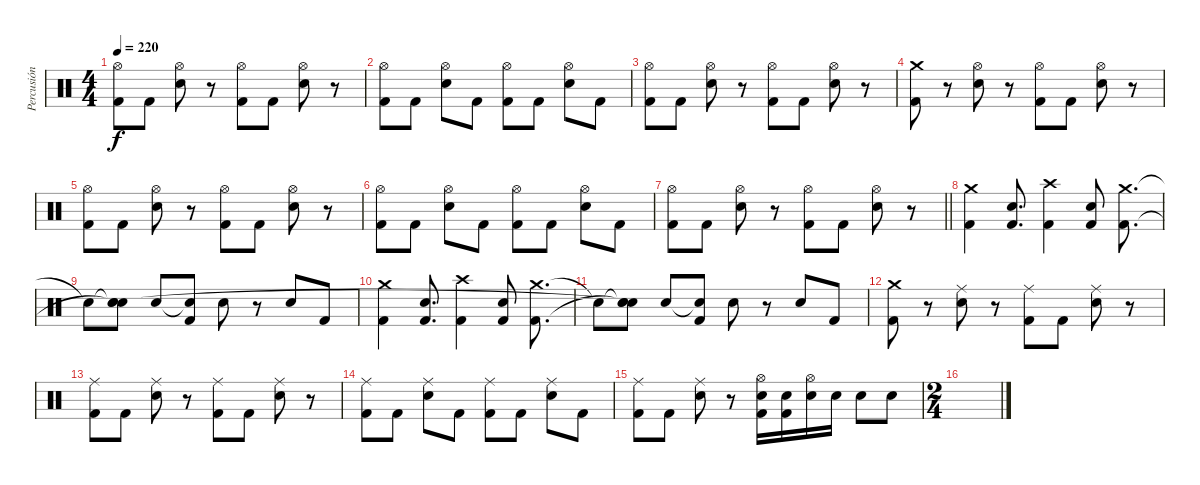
\track ("Percusión" "Percusión") {instrument percussion}
\staff {score}
\articulation defaults
\ts (4 4)
\tempo 220
\clef neutral
\ks c
("Hi-Hat (open)" "Kick (hit) 2").8{dy f} "Kick (hit) 2".8 ("Hi-Hat (open)" "Electric Snare (hit)").8 r.8 ("Hi-Hat (open)" "Kick (hit) 2").8 "Kick (hit) 2".8 ("Hi-Hat (open)" "Electric Snare (hit)").8 r.8 |
("Hi-Hat (open)" "Kick (hit) 2").8 "Kick (hit) 2".8 ("Hi-Hat (open)" "Electric Snare (hit)").8 "Kick (hit) 2".8 ("Hi-Hat (open)" "Kick (hit) 2").8 "Kick (hit) 2".8 ("Hi-Hat (open)" "Electric Snare (hit)").8 "Kick (hit) 2".8 |
("Hi-Hat (open)" "Kick (hit) 2").8 "Kick (hit) 2".8 ("Hi-Hat (open)" "Electric Snare (hit)").8 r.8 ("Hi-Hat (open)" "Kick (hit) 2").8 "Kick (hit) 2".8 ("Hi-Hat (open)" "Electric Snare (hit)").8 r.8 |
("Crash medium (hit)" "Kick (hit) 2").8 r.8 ("Hi-Hat (open)" "Electric Snare (hit)").8 r.8 ("Hi-Hat (open)" "Kick (hit) 2").8 "Kick (hit) 2".8 ("Hi-Hat (open)" "Electric Snare (hit)").8 r.8 |
("Hi-Hat (open)" "Kick (hit) 2").8 "Kick (hit) 2".8 ("Hi-Hat (open)" "Electric Snare (hit)").8 r.8 ("Hi-Hat (open)" "Kick (hit) 2").8 "Kick (hit) 2".8 ("Hi-Hat (open)" "Electric Snare (hit)").8 r.8 |
("Hi-Hat (open)" "Kick (hit) 2").8 "Kick (hit) 2".8 ("Hi-Hat (open)" "Electric Snare (hit)").8 "Kick (hit) 2".8 ("Hi-Hat (open)" "Kick (hit) 2").8 "Kick (hit) 2".8 ("Hi-Hat (open)" "Electric Snare (hit)").8 "Kick (hit) 2".8 |
\barLineRight lightlight
("Hi-Hat (open)" "Kick (hit) 2").8 "Kick (hit) 2".8 ("Hi-Hat (open)" "Electric Snare (hit)").8 r.8 ("Hi-Hat (open)" "Kick (hit) 2").8 "Kick (hit) 2".8 ("Hi-Hat (open)" "Electric Snare (hit)").8 r.8 |
("Crash medium (hit)" "Kick (hit) 2").4 ("Electric Snare (hit)" "Kick (hit) 2").8{d} ("Crash high (hit)" "Kick (hit) 2").4 ("Electric Snare (hit)" "Kick (hit) 2").8 ("Crash medium (hit)" "Kick (hit) 2").8{d} |
"Snare (hit)"{t}.8 ("Snare (hit)"{t} "Snare (hit)"{t} "Snare (hit)").8 "Electric Snare (hit)".8 ("Snare (hit)"{t} "Kick (hit) 2").8 "Electric Snare (hit)".8 r.8 "Electric Snare (hit)".8 "Kick (hit) 2".8 |
("Crash medium (hit)" "Kick (hit) 2").4 ("Electric Snare (hit)" "Kick (hit) 2").8{d} ("Crash high (hit)" "Kick (hit) 2").4 ("Electric Snare (hit)" "Kick (hit) 2").8 ("Crash medium (hit)" "Kick (hit) 2").8{d} |
"Snare (hit)"{t}.8 ("Snare (hit)"{t} "Snare (hit)"{t} "Snare (hit)"{t}).8 "Electric Snare (hit)".8 ("Snare (hit)"{t} "Kick (hit) 2").8 "Electric Snare (hit)".8 r.8 "Electric Snare (hit)".8 "Kick (hit) 2".8 |
("Crash medium (hit)" "Kick (hit) 2").8 r.8 ("Ride (middle)" "Electric Snare (hit)").8 r.8 ("Ride (middle)" "Kick (hit) 2").8 "Kick (hit) 2".8 ("Ride (middle)" "Electric Snare (hit)").8 r.8 |
("Ride (middle)" "Kick (hit) 2").8 "Kick (hit) 2".8 ("Ride (middle)" "Electric Snare (hit)").8 r.8 ("Ride (middle)" "Kick (hit) 2").8 "Kick (hit) 2".8 ("Ride (middle)" "Electric Snare (hit)").8 r.8 |
("Ride (middle)" "Kick (hit) 2").8 "Kick (hit) 2".8 ("Ride (middle)" "Electric Snare (hit)").8 "Kick (hit) 2".8 ("Ride (middle)" "Kick (hit) 2").8 "Kick (hit) 2".8 ("Ride (middle)" "Electric Snare (hit)").8 "Kick (hit) 2".8 |
("Ride (middle)" "Kick (hit) 2").8 "Kick (hit) 2".8 ("Ride (middle)" "Electric Snare (hit)").8 r.8 ("Hi-Hat (open)" "Electric Snare (hit)" "Kick (hit) 2").16 ("Electric Snare (hit)" "Kick (hit) 2").16 ("Hi-Hat (open)" "Electric Snare (hit)").16 "Electric Snare (hit)".16 "Electric Snare (hit)".8 "Electric Snare (hit)".8 |
\ts (2 4)
